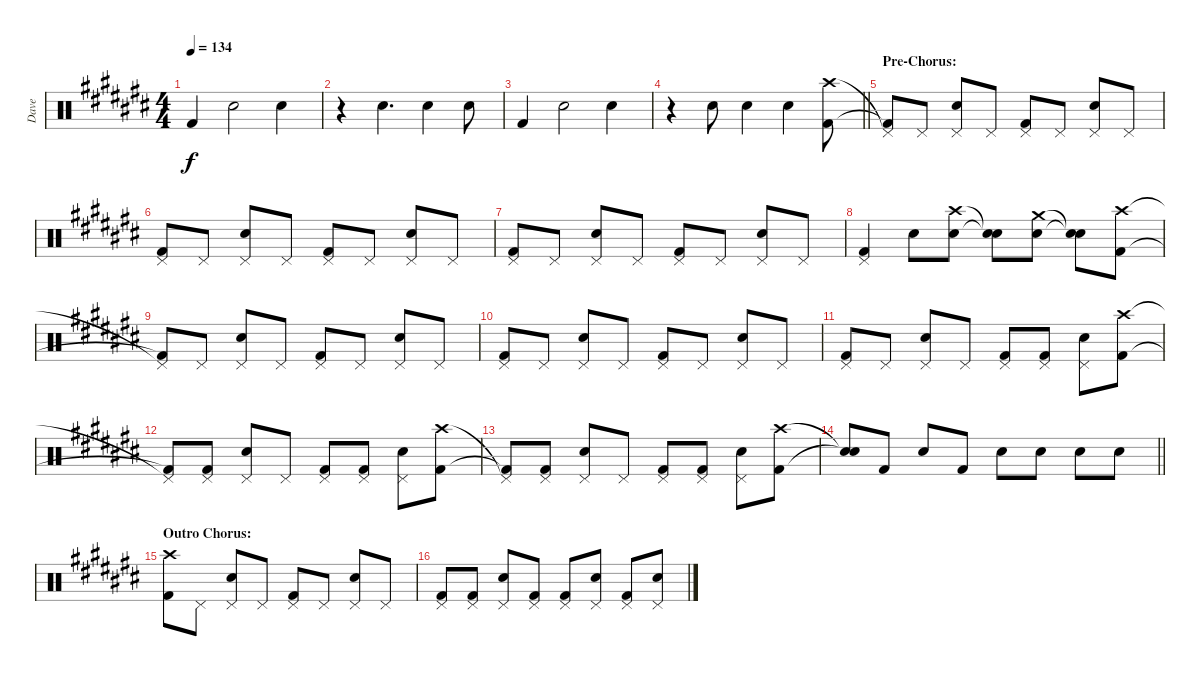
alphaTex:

\track ("Dave" "Dave") {instrument percussion}
\staff {score}
\articulation defaults
\ts (4 4)
\tempo 134
\clef neutral
\ks c# "Kick (hit) 2".4{dy f} "Snare (hit) 2".2 "Snare (hit) 2".4
|
r.4 "Snare (hit) 2".4{d} "Snare (hit) 2".4 "Snare (hit) 2".8 |
"Kick (hit) 2".4 "Snare (hit) 2".2 "Snare (hit) 2".4 |
\barLineRight lightlight
r.4 "Snare (hit) 2".8 "Snare (hit) 2".4 "Snare (hit) 2".4 ("Crash high (hit)" "Kick (hit) 2").8 |
\section ("" "Pre-Chorus:")
("Pedal Hi-Hat (hit)"{t} "Kick (hit) 2"{t}).8 "Pedal Hi-Hat (hit)".8 ("Pedal Hi-Hat (hit)" "Snare (hit) 2").8 "Pedal Hi-Hat (hit)".8 ("Pedal Hi-Hat (hit)" "Kick (hit) 2").8 "Pedal Hi-Hat (hit)".8 ("Pedal Hi-Hat (hit)" "Snare (hit) 2").8 "Pedal Hi-Hat (hit)".8 |
("Pedal Hi-Hat (hit)" "Kick (hit) 2").8 "Pedal Hi-Hat (hit)".8 ("Pedal Hi-Hat (hit)" "Snare (hit) 2").8 "Pedal Hi-Hat (hit)".8 ("Pedal Hi-Hat (hit)" "Kick (hit) 2").8 "Pedal Hi-Hat (hit)".8 ("Pedal Hi-Hat (hit)" "Snare (hit) 2").8 "Pedal Hi-Hat (hit)".8 |
("Pedal Hi-Hat (hit)" "Kick (hit) 2").8 "Pedal Hi-Hat (hit)".8 ("Pedal Hi-Hat (hit)" "Snare (hit) 2").8 "Pedal Hi-Hat (hit)".8 ("Pedal Hi-Hat (hit)" "Kick (hit) 2").8 "Pedal Hi-Hat (hit)".8 ("Pedal Hi-Hat (hit)" "Snare (hit) 2").8 "Pedal Hi-Hat (hit)".8 |
("Pedal Hi-Hat (hit)" "Kick (hit) 2").4 "Snare (hit) 2".8 ("Crash high (hit)" "Snare (hit) 2").8 ("Snare (hit)"{t} "Snare (hit)"{t}).8 ("Crash medium (hit)" "Snare (hit) 2").8 ("Snare (hit)"{t} "Snare (hit)"{t}).8 ("Crash high (hit)" "Kick (hit) 2").8 |
("Pedal Hi-Hat (hit)"{t} "Kick (hit) 2"{t}).8 "Pedal Hi-Hat (hit)".8 ("Pedal Hi-Hat (hit)" "Snare (hit) 2").8 "Pedal Hi-Hat (hit)".8 ("Pedal Hi-Hat (hit)" "Kick (hit) 2").8 "Pedal Hi-Hat (hit)".8 ("Pedal Hi-Hat (hit)" "Snare (hit) 2").8 "Pedal Hi-Hat (hit)".8 |
("Pedal Hi-Hat (hit)" "Kick (hit) 2").8 "Pedal Hi-Hat (hit)".8 ("Pedal Hi-Hat (hit)" "Snare (hit) 2").8 "Pedal Hi-Hat (hit)".8 ("Pedal Hi-Hat (hit)" "Kick (hit) 2").8 "Pedal Hi-Hat (hit)".8 ("Pedal Hi-Hat (hit)" "Snare (hit) 2").8 "Pedal Hi-Hat (hit)".8 |
("Pedal Hi-Hat (hit)" "Kick (hit) 2").8 "Pedal Hi-Hat (hit)".8 ("Pedal Hi-Hat (hit)" "Snare (hit) 2").8 "Pedal Hi-Hat (hit)".8 ("Pedal Hi-Hat (hit)" "Kick (hit) 2").8 ("Pedal Hi-Hat (hit)" "Kick (hit) 2").8 ("Pedal Hi-Hat (hit)" "Snare (hit) 2").8 ("Crash high (hit)" "Kick (hit) 2").8 |
("Pedal Hi-Hat (hit)"{t} "Kick (hit) 2"{t}).8 ("Pedal Hi-Hat (hit)" "Kick (hit) 2").8 ("Pedal Hi-Hat (hit)" "Snare (hit) 2").8 "Pedal Hi-Hat (hit)".8 ("Pedal Hi-Hat (hit)" "Kick (hit) 2").8 ("Pedal Hi-Hat (hit)" "Kick (hit) 2").8 ("Pedal Hi-Hat (hit)" "Snare (hit) 2").8 ("Crash high (hit)" "Kick (hit) 2").8 |
("Pedal Hi-Hat (hit)"{t} "Kick (hit) 2"{t}).8 ("Pedal Hi-Hat (hit)" "Kick (hit) 2").8 ("Pedal Hi-Hat (hit)" "Snare (hit) 2").8 "Pedal Hi-Hat (hit)".8 ("Pedal Hi-Hat (hit)" "Kick (hit) 2").8 ("Pedal Hi-Hat (hit)" "Kick (hit) 2").8 ("Pedal Hi-Hat (hit)" "Snare (hit) 2").8 ("Crash high (hit)" "Kick (hit) 2").8 |
\barLineRight lightlight
("Snare (hit)"{t} "Snare (hit)"{t}).8 "Kick (hit) 2".8 "Snare (hit) 2".8 "Kick (hit) 2".8 "Snare (hit) 2".8 "Snare (hit) 2".8 "Snare (hit) 2".8 "Snare (hit) 2".8 |
\section ("" "Outro Chorus:")
("Crash high (hit)" "Kick (hit) 2").8 "Pedal Hi-Hat (hit)".8 ("Pedal Hi-Hat (hit)" "Snare (hit) 2").8 "Pedal Hi-Hat (hit)".8 ("Pedal Hi-Hat (hit)" "Kick (hit) 2").8 "Pedal Hi-Hat (hit)".8 ("Pedal Hi-Hat (hit)" "Snare (hit) 2").8 "Pedal Hi-Hat (hit)".8 |
("Pedal Hi-Hat (hit)" "Kick (hit) 2").8 ("Pedal Hi-Hat (hit)" "Kick (hit) 2").8 ("Pedal Hi-Hat (hit)" "Snare (hit) 2").8 ("Pedal Hi-Hat (hit)" "Kick (hit) 2").8 ("Pedal Hi-Hat (hit)" "Kick (hit) 2").8 ("Pedal Hi-Hat (hit)" "Snare (hit) 2").8 ("Pedal Hi-Hat (hit)" "Kick (hit) 2").8 ("Pedal Hi-Hat (hit)" "Snare (hit) 2").8
